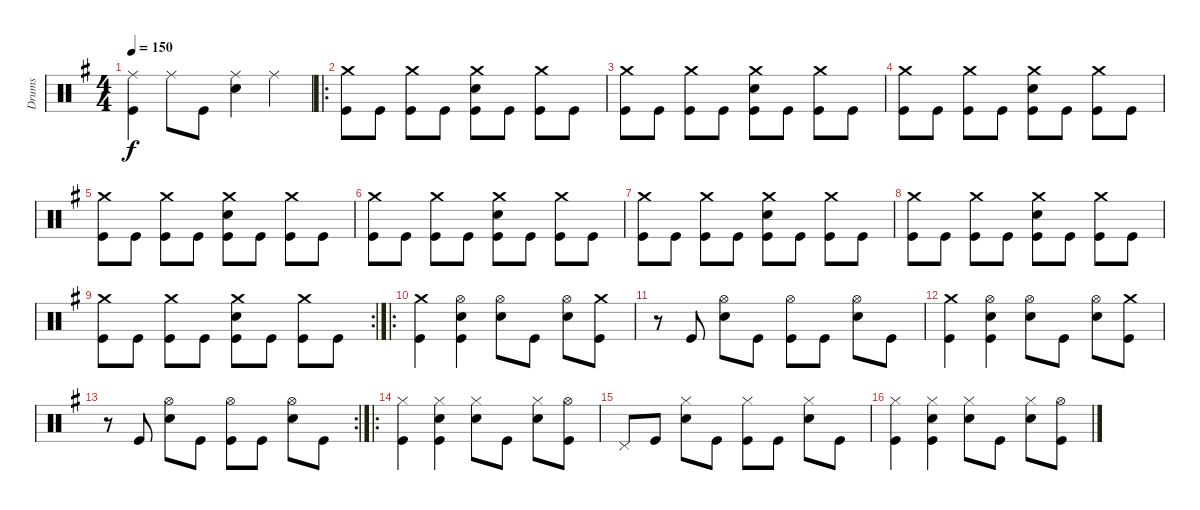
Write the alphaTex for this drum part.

\track ("Drums" "Drums") {instrument percussion}
\staff {score}
\articulation defaults
\ts (4 4)
\tempo 150
\clef neutral
\ks g
("Ride (middle)" "Kick (hit)").4{dy f} "Ride (middle)".8 "Kick (hit)".8 ("Ride (middle)" "Snare (hit) 2").4 "Ride (middle)".4 |
\ro
("Crash medium (hit)" "Kick (hit)").8 "Kick (hit)".8 ("Crash medium (hit)" "Kick (hit)").8 "Kick (hit)".8 ("Crash medium (hit)" "Snare (hit) 2" "Kick (hit)").8 "Kick (hit)".8 ("Crash medium (hit)" "Kick (hit)").8 "Kick (hit)".8 |
("Crash medium (hit)" "Kick (hit)").8 "Kick (hit)".8 ("Crash medium (hit)" "Kick (hit)").8 "Kick (hit)".8 ("Crash medium (hit)" "Snare (hit) 2" "Kick (hit)").8 "Kick (hit)".8 ("Crash medium (hit)" "Kick (hit)").8 "Kick (hit)".8 |
("Crash medium (hit)" "Kick (hit)").8 "Kick (hit)".8 ("Crash medium (hit)" "Kick (hit)").8 "Kick (hit)".8 ("Crash medium (hit)" "Snare (hit) 2" "Kick (hit)").8 "Kick (hit)".8 ("Crash medium (hit)" "Kick (hit)").8 "Kick (hit)".8 |
("Crash medium (hit)" "Kick (hit)").8 "Kick (hit)".8 ("Crash medium (hit)" "Kick (hit)").8 "Kick (hit)".8 ("Crash medium (hit)" "Snare (hit) 2" "Kick (hit)").8 "Kick (hit)".8 ("Crash medium (hit)" "Kick (hit)").8 "Kick (hit)".8 |
("Crash medium (hit)" "Kick (hit)").8 "Kick (hit)".8 ("Crash medium (hit)" "Kick (hit)").8 "Kick (hit)".8 ("Crash medium (hit)" "Snare (hit) 2" "Kick (hit)").8 "Kick (hit)".8 ("Crash medium (hit)" "Kick (hit)").8 "Kick (hit)".8 |
("Crash medium (hit)" "Kick (hit)").8 "Kick (hit)".8 ("Crash medium (hit)" "Kick (hit)").8 "Kick (hit)".8 ("Crash medium (hit)" "Snare (hit) 2" "Kick (hit)").8 "Kick (hit)".8 ("Crash medium (hit)" "Kick (hit)").8 "Kick (hit)".8 |
("Crash medium (hit)" "Kick (hit)").8 "Kick (hit)".8 ("Crash medium (hit)" "Kick (hit)").8 "Kick (hit)".8 ("Crash medium (hit)" "Snare (hit) 2" "Kick (hit)").8 "Kick (hit)".8 ("Crash medium (hit)" "Kick (hit)").8 "Kick (hit)".8 |
\rc 2
("Crash medium (hit)" "Kick (hit)").8 "Kick (hit)".8 ("Crash medium (hit)" "Kick (hit)").8 "Kick (hit)".8 ("Crash medium (hit)" "Snare (hit) 2" "Kick (hit)").8 "Kick (hit)".8 ("Crash medium (hit)" "Kick (hit)").8 "Kick (hit)".8 |
\ro
("Crash medium (hit)" "Kick (hit)").4 ("Hi-Hat (open)" "Snare (hit) 2" "Kick (hit)").4 ("Hi-Hat (open)" "Snare (hit) 2").8 "Kick (hit)".8 ("Hi-Hat (open)" "Snare (hit) 2").8 ("Crash medium (hit)" "Kick (hit)").8 |
r.8 "Kick (hit)".8 ("Hi-Hat (open)" "Snare (hit) 2").8 "Kick (hit)".8 ("Hi-Hat (open)" "Kick (hit)").8 "Kick (hit)".8 ("Hi-Hat (open)" "Snare (hit) 2").8 "Kick (hit)".8 |
("Crash medium (hit)" "Kick (hit)").4 ("Hi-Hat (open)" "Snare (hit) 2" "Kick (hit)").4 ("Hi-Hat (open)" "Snare (hit) 2").8 "Kick (hit)".8 ("Hi-Hat (open)" "Snare (hit) 2").8 ("Crash medium (hit)" "Kick (hit)").8 |
\rc 2
r.8 "Kick (hit)".8 ("Hi-Hat (open)" "Snare (hit) 2").8 "Kick (hit)".8 ("Hi-Hat (open)" "Kick (hit)").8 "Kick (hit)".8 ("Hi-Hat (open)" "Snare (hit) 2").8 "Kick (hit)".8 |
\ro
("Hi-Hat (closed)" "Kick (hit)").4 ("Hi-Hat (closed)" "Snare (hit) 2" "Kick (hit)").4 ("Hi-Hat (closed)" "Snare (hit) 2").8 "Kick (hit)".8 ("Hi-Hat (closed)" "Snare (hit) 2").8 ("Hi-Hat (open)" "Kick (hit)").8 |
"Pedal Hi-Hat (hit)".8 "Kick (hit)".8 ("Hi-Hat (closed)" "Snare (hit) 2").8 "Kick (hit)".8 ("Hi-Hat (closed)" "Kick (hit)").8 "Kick (hit)".8 ("Hi-Hat (closed)" "Snare (hit) 2").8 "Kick (hit)".8 |
("Hi-Hat (closed)" "Kick (hit)").4 ("Hi-Hat (closed)" "Snare (hit) 2" "Kick (hit)").4 ("Hi-Hat (closed)" "Snare (hit) 2").8 "Kick (hit)".8 ("Hi-Hat (closed)" "Snare (hit) 2").8 ("Hi-Hat (open)" "Kick (hit)").8
